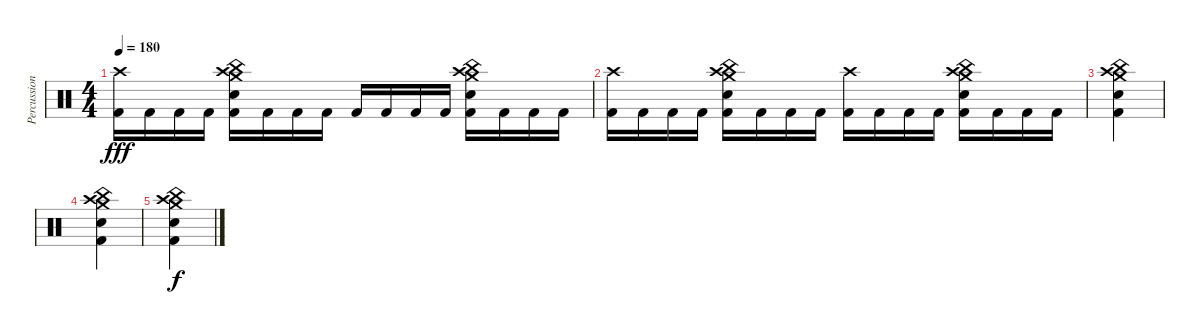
\track ("Percussion" "Percussion") {instrument percussion}
\staff {score}
\articulation defaults
\ts (4 4)
\tempo 180
\clef neutral
\ks c
("Crash high (hit)" "Kick (hit) 2").16{dy fff} "Kick (hit) 2".16 "Kick (hit) 2".16 "Kick (hit) 2".16 ("Crash medium (hit)" "China (hit)" "Crash high (hit)" "Snare (hit) 2" "Kick (hit) 2").16 "Kick (hit) 2".16 "Kick (hit) 2".16 "Kick (hit) 2".16 "Kick (hit) 2".16 "Kick (hit) 2".16 "Kick (hit) 2".16 "Kick (hit) 2".16 ("Crash medium (hit)" "China (hit)" "Crash high (hit)" "Snare (hit) 2" "Kick (hit) 2").16 "Kick (hit) 2".16 "Kick (hit) 2".16 "Kick (hit) 2".16 |
("Crash high (hit)" "Kick (hit) 2").16 "Kick (hit) 2".16 "Kick (hit) 2".16 "Kick (hit) 2".16 ("Crash medium (hit)" "China (hit)" "Crash high (hit)" "Snare (hit) 2" "Kick (hit) 2").16 "Kick (hit) 2".16 "Kick (hit) 2".16 "Kick (hit) 2".16 ("Crash high (hit)" "Kick (hit) 2").16 "Kick (hit) 2".16 "Kick (hit) 2".16 "Kick (hit) 2".16 ("Crash medium (hit)" "China (hit)" "Crash high (hit)" "Snare (hit) 2" "Kick (hit) 2").16 "Kick (hit) 2".16 "Kick (hit) 2".16 "Kick (hit) 2".16 |
("Crash medium (hit)" "China (hit)" "Crash high (hit)" "Snare (hit) 2" "Kick (hit) 2").4 |
("Crash medium (hit)" "China (hit)" "Crash high (hit)" "Snare (hit) 2" "Kick (hit) 2").4 |
("Crash medium (hit)" "China (hit)" "Crash high (hit)" "Snare (hit) 2" "Kick (hit) 2").4{dy f}
